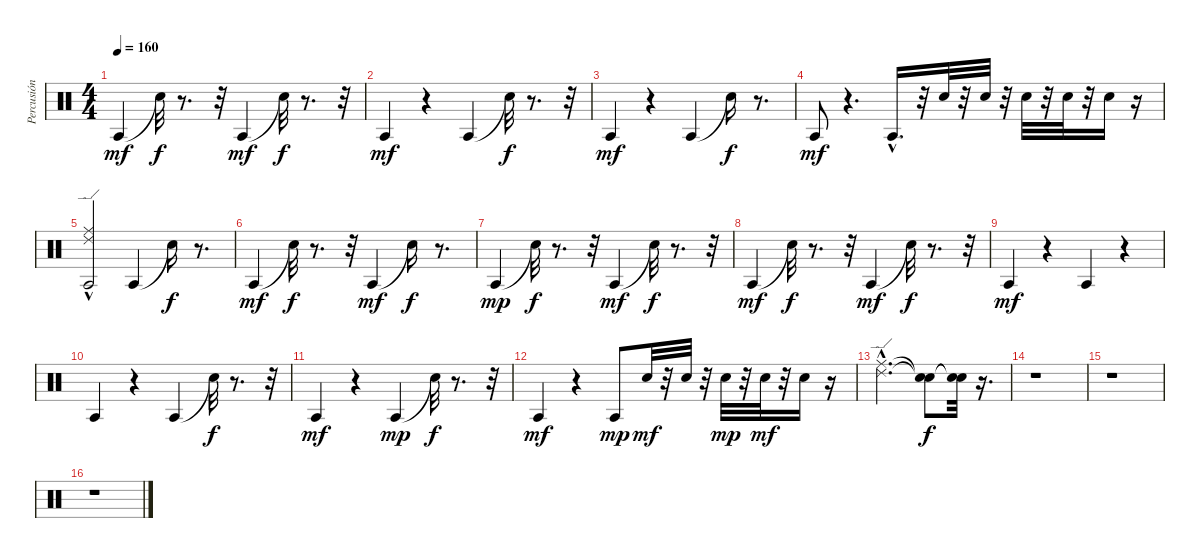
\track ("Percusión" "Percusión") {instrument percussion}
\staff {score}
\articulation defaults
\ts (4 4)
\tempo 160
\clef neutral
\ks c "Agogo tow (hit)".4{dy mf} "Snare (hit)"{t}.32{dy f}
r.8{d} r.32 "Agogo tow (hit)".4{dy mf} "Snare (hit)"{t}.32{dy f} r.8{d} r.32 |
"Agogo tow (hit)".4{dy mf} r.4 "Agogo tow (hit)".4 "Snare (hit)"{t}.32{dy f} r.8{d} r.32 |
"Agogo tow (hit)".4{dy mf} r.4 "Agogo tow (hit)".4 "Snare (hit)"{t}.16{dy f} r.8{d} |
"Agogo tow (hit)".8{dy mf} r.4{d} "Agogo tow (hit)"{hac}.16{d} r.32 "Electric Snare (hit)".32 r.32 "Electric Snare (hit)".32 r.32 "Electric Snare (hit)".32 r.32 "Electric Snare (hit)".32 r.32 "Electric Snare (hit)".16 r.16 |
("Ride (edge) 2"{hac} "Ride (middle)" "Agogo tow (hit)").2 "Agogo tow (hit)".4 "Snare (hit)"{t}.16{dy f} r.8{d} |
"Agogo tow (hit)".4{dy mf} "Snare (hit)"{t}.32{dy f} r.8{d} r.32 "Agogo tow (hit)".4{dy mf} "Snare (hit)"{t}.16{dy f} r.8{d} |
"Agogo tow (hit)".4{dy mp} "Snare (hit)"{t}.32{dy f} r.8{d} r.32 "Agogo tow (hit)".4{dy mf} "Snare (hit)"{t}.32{dy f} r.8{d} r.32 |
"Agogo tow (hit)".4{dy mf} "Snare (hit)"{t}.32{dy f} r.8{d} r.32 "Agogo tow (hit)".4{dy mf} "Snare (hit)"{t}.32{dy f} r.8{d} r.32 |
"Agogo tow (hit)".4{dy mf} r.4 "Agogo tow (hit)".4 r.4 |
"Agogo tow (hit)".4 r.4 "Agogo tow (hit)".4 "Snare (hit)"{t}.32{dy f} r.8{d} r.32 |
"Agogo tow (hit)".4{dy mf} r.4 "Agogo tow (hit)".4{dy mp} "Snare (hit)"{t}.32{dy f} r.8{d} r.32 |
"Agogo tow (hit)".4{dy mf} r.4 "Agogo tow (hit)".8{dy mp} "Electric Snare (hit)".32{dy mf} r.32 "Electric Snare (hit)".32 r.32 "Electric Snare (hit)".32{dy mp} r.32 "Electric Snare (hit)".32{dy mf} r.32 "Electric Snare (hit)".16 r.16 |
("Ride (edge) 2"{hac} "Ride (middle)"{hac}).2{d} ("Snare (hit)"{t} "Snare (hit)"{t}).8{dy f} ("Snare (hit)"{t} "Snare (hit)"{t}).32 r.16{d} |
r.1 |
r.1 |
r.1
